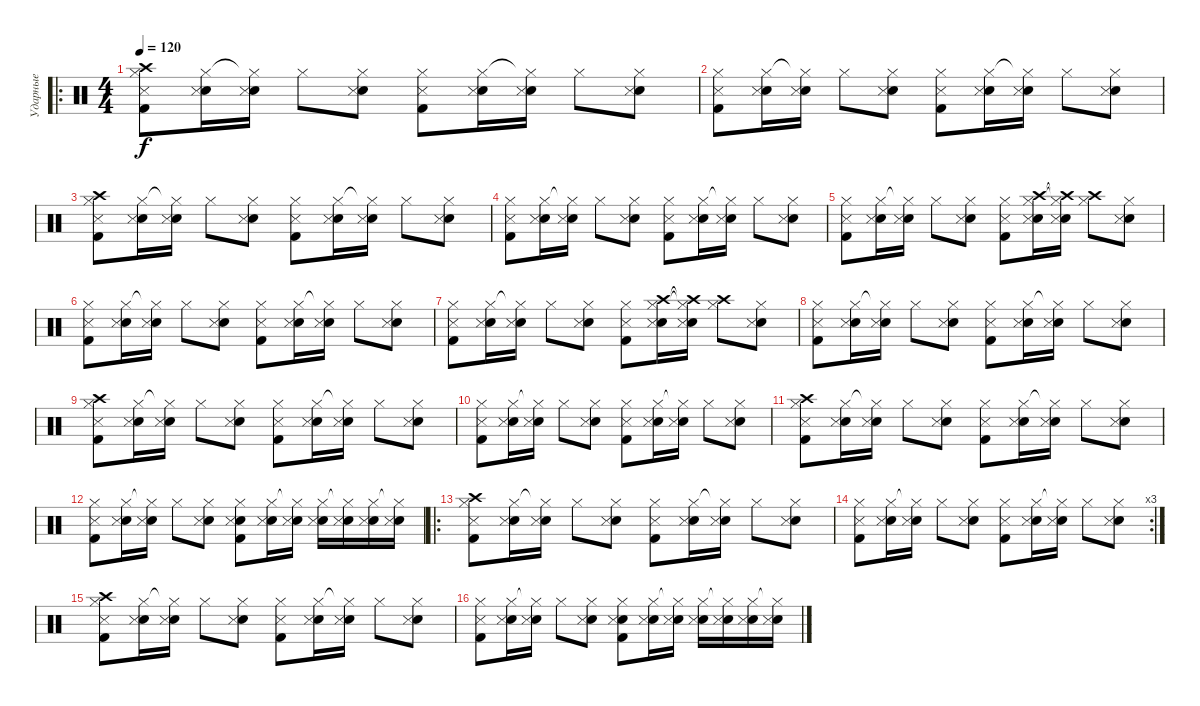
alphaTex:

\track ("Ударные" "Ударные") {instrument percussion}
\staff {score}
\articulation defaults
\ro
\ts (4 4)
\tempo 120
\clef neutral
\ks c
("Crash high (hit)" "Hi-Hat (closed)" "Kick (hit) 2" "Snare (side stick) 3").8{dy f} ("Hi-Hat (closed)" "Snare (hit) 2" "Snare (side stick) 3").16 ("Hi-Hat (closed)"{t} "Snare (hit) 2" "Snare (side stick) 3").16 "Hi-Hat (closed)".8 ("Hi-Hat (closed)" "Snare (hit) 2" "Snare (side stick) 3").8 ("Hi-Hat (closed)" "Kick (hit) 2" "Snare (side stick) 3").8 ("Hi-Hat (closed)" "Snare (hit) 2" "Snare (side stick) 3").16 ("Hi-Hat (closed)"{t} "Snare (hit) 2" "Snare (side stick) 3").16 "Hi-Hat (closed)".8 ("Hi-Hat (closed)" "Snare (hit) 2" "Snare (side stick) 3").8 |
("Hi-Hat (closed)" "Kick (hit) 2" "Snare (side stick) 3").8 ("Hi-Hat (closed)" "Snare (hit) 2" "Snare (side stick) 3").16 ("Hi-Hat (closed)"{t} "Snare (hit) 2" "Snare (side stick) 3").16 "Hi-Hat (closed)".8 ("Hi-Hat (closed)" "Snare (hit) 2" "Snare (side stick) 3").8 ("Hi-Hat (closed)" "Kick (hit) 2" "Snare (side stick) 3").8 ("Hi-Hat (closed)" "Snare (hit) 2" "Snare (side stick) 3").16 ("Hi-Hat (closed)"{t} "Snare (hit) 2" "Snare (side stick) 3").16 "Hi-Hat (closed)".8 ("Hi-Hat (closed)" "Snare (hit) 2" "Snare (side stick) 3").8 |
("Crash high (hit)" "Hi-Hat (closed)" "Kick (hit) 2" "Snare (side stick) 3").8 ("Hi-Hat (closed)" "Snare (hit) 2" "Snare (side stick) 3").16 ("Hi-Hat (closed)"{t} "Snare (hit) 2" "Snare (side stick) 3").16 "Hi-Hat (closed)".8 ("Hi-Hat (closed)" "Snare (hit) 2" "Snare (side stick) 3").8 ("Hi-Hat (closed)" "Kick (hit) 2" "Snare (side stick) 3").8 ("Hi-Hat (closed)" "Snare (hit) 2" "Snare (side stick) 3").16 ("Hi-Hat (closed)"{t} "Snare (hit) 2" "Snare (side stick) 3").16 "Hi-Hat (closed)".8 ("Hi-Hat (closed)" "Snare (hit) 2" "Snare (side stick) 3").8 |
("Hi-Hat (closed)" "Kick (hit) 2" "Snare (side stick) 3").8 ("Hi-Hat (closed)" "Snare (hit) 2" "Snare (side stick) 3").16 ("Hi-Hat (closed)"{t} "Snare (hit) 2" "Snare (side stick) 3").16 "Hi-Hat (closed)".8 ("Hi-Hat (closed)" "Snare (hit) 2" "Snare (side stick) 3").8 ("Hi-Hat (closed)" "Kick (hit) 2" "Snare (side stick) 3").8 ("Hi-Hat (closed)" "Snare (hit) 2" "Snare (side stick) 3").16 ("Hi-Hat (closed)"{t} "Snare (hit) 2" "Snare (side stick) 3").16 "Hi-Hat (closed)".8 ("Hi-Hat (closed)" "Snare (hit) 2" "Snare (side stick) 3").8 |
("Hi-Hat (closed)" "Kick (hit) 2" "Snare (side stick) 3").8 ("Hi-Hat (closed)" "Snare (hit) 2" "Snare (side stick) 3").16 ("Hi-Hat (closed)"{t} "Snare (hit) 2" "Snare (side stick) 3").16 "Hi-Hat (closed)".8 ("Hi-Hat (closed)" "Snare (hit) 2" "Snare (side stick) 3").8 ("Hi-Hat (closed)" "Kick (hit) 2" "Snare (side stick) 3").8 ("Crash high (hit)" "Hi-Hat (closed)" "Snare (hit) 2" "Snare (side stick) 3").16 ("Crash high (hit)"{t} "Hi-Hat (closed)"{t} "Snare (hit) 2" "Snare (side stick) 3").16 ("Crash high (hit)" "Hi-Hat (closed)").8 ("Hi-Hat (closed)" "Snare (hit) 2" "Snare (side stick) 3").8 |
("Hi-Hat (closed)" "Kick (hit) 2" "Snare (side stick) 3").8 ("Hi-Hat (closed)" "Snare (hit) 2" "Snare (side stick) 3").16 ("Hi-Hat (closed)"{t} "Snare (hit) 2" "Snare (side stick) 3").16 "Hi-Hat (closed)".8 ("Hi-Hat (closed)" "Snare (hit) 2" "Snare (side stick) 3").8 ("Hi-Hat (closed)" "Kick (hit) 2" "Snare (side stick) 3").8 ("Hi-Hat (closed)" "Snare (hit) 2" "Snare (side stick) 3").16 ("Hi-Hat (closed)"{t} "Snare (hit) 2" "Snare (side stick) 3").16 "Hi-Hat (closed)".8 ("Hi-Hat (closed)" "Snare (hit) 2" "Snare (side stick) 3").8 |
("Hi-Hat (closed)" "Kick (hit) 2" "Snare (side stick) 3").8 ("Hi-Hat (closed)" "Snare (hit) 2" "Snare (side stick) 3").16 ("Hi-Hat (closed)"{t} "Snare (hit) 2" "Snare (side stick) 3").16 "Hi-Hat (closed)".8 ("Hi-Hat (closed)" "Snare (hit) 2" "Snare (side stick) 3").8 ("Hi-Hat (closed)" "Kick (hit) 2" "Snare (side stick) 3").8 ("Crash high (hit)" "Hi-Hat (closed)" "Snare (hit) 2" "Snare (side stick) 3").16 ("Crash high (hit)"{t} "Hi-Hat (closed)"{t} "Snare (hit) 2" "Snare (side stick) 3").16 ("Crash high (hit)" "Hi-Hat (closed)").8 ("Hi-Hat (closed)" "Snare (hit) 2" "Snare (side stick) 3").8 |
("Hi-Hat (closed)" "Kick (hit) 2" "Snare (side stick) 3").8 ("Hi-Hat (closed)" "Snare (hit) 2" "Snare (side stick) 3").16 ("Hi-Hat (closed)"{t} "Snare (hit) 2" "Snare (side stick) 3").16 "Hi-Hat (closed)".8 ("Hi-Hat (closed)" "Snare (hit) 2" "Snare (side stick) 3").8 ("Hi-Hat (closed)" "Kick (hit) 2" "Snare (side stick) 3").8 ("Hi-Hat (closed)" "Snare (hit) 2" "Snare (side stick) 3").16 ("Hi-Hat (closed)"{t} "Snare (hit) 2" "Snare (side stick) 3").16 "Hi-Hat (closed)".8 ("Hi-Hat (closed)" "Snare (hit) 2" "Snare (side stick) 3").8 |
("Crash high (hit)" "Hi-Hat (closed)" "Kick (hit) 2" "Snare (side stick) 3").8 ("Hi-Hat (closed)" "Snare (hit) 2" "Snare (side stick) 3").16 ("Hi-Hat (closed)"{t} "Snare (hit) 2" "Snare (side stick) 3").16 "Hi-Hat (closed)".8 ("Hi-Hat (closed)" "Snare (hit) 2" "Snare (side stick) 3").8 ("Hi-Hat (closed)" "Kick (hit) 2" "Snare (side stick) 3").8 ("Hi-Hat (closed)" "Snare (hit) 2" "Snare (side stick) 3").16 ("Hi-Hat (closed)"{t} "Snare (hit) 2" "Snare (side stick) 3").16 "Hi-Hat (closed)".8 ("Hi-Hat (closed)" "Snare (hit) 2" "Snare (side stick) 3").8 |
("Hi-Hat (closed)" "Kick (hit) 2" "Snare (side stick) 3").8 ("Hi-Hat (closed)" "Snare (hit) 2" "Snare (side stick) 3").16 ("Hi-Hat (closed)"{t} "Snare (hit) 2" "Snare (side stick) 3").16 "Hi-Hat (closed)".8 ("Hi-Hat (closed)" "Snare (hit) 2" "Snare (side stick) 3").8 ("Hi-Hat (closed)" "Kick (hit) 2" "Snare (side stick) 3").8 ("Hi-Hat (closed)" "Snare (hit) 2" "Snare (side stick) 3").16 ("Hi-Hat (closed)"{t} "Snare (hit) 2" "Snare (side stick) 3").16 "Hi-Hat (closed)".8 ("Hi-Hat (closed)" "Snare (hit) 2" "Snare (side stick) 3").8 |
("Crash high (hit)" "Hi-Hat (closed)" "Kick (hit) 2" "Snare (side stick) 3").8 ("Hi-Hat (closed)" "Snare (hit) 2" "Snare (side stick) 3").16 ("Hi-Hat (closed)"{t} "Snare (hit) 2" "Snare (side stick) 3").16 "Hi-Hat (closed)".8 ("Hi-Hat (closed)" "Snare (hit) 2" "Snare (side stick) 3").8 ("Hi-Hat (closed)" "Kick (hit) 2" "Snare (side stick) 3").8 ("Hi-Hat (closed)" "Snare (hit) 2" "Snare (side stick) 3").16 ("Hi-Hat (closed)"{t} "Snare (hit) 2" "Snare (side stick) 3").16 "Hi-Hat (closed)".8 ("Hi-Hat (closed)" "Snare (hit) 2" "Snare (side stick) 3").8 |
("Hi-Hat (closed)" "Kick (hit) 2" "Snare (side stick) 3").8 ("Hi-Hat (closed)" "Snare (hit) 2" "Snare (side stick) 3").16 ("Hi-Hat (closed)"{t} "Snare (hit) 2" "Snare (side stick) 3").16 "Hi-Hat (closed)".8 ("Hi-Hat (closed)" "Snare (hit) 2" "Snare (side stick) 3").8 ("Hi-Hat (closed)" "Kick (hit) 2" "Snare (hit) 2" "Snare (side stick) 3").8 ("Hi-Hat (closed)" "Snare (hit) 2" "Snare (side stick) 3").16 ("Hi-Hat (closed)"{t} "Snare (hit) 2" "Snare (side stick) 3").16 ("Hi-Hat (closed)" "Snare (hit) 2" "Snare (side stick) 3").16 ("Hi-Hat (closed)"{t} "Snare (hit) 2" "Snare (side stick) 3").16 ("Hi-Hat (closed)" "Snare (hit) 2" "Snare (side stick) 3").16 ("Hi-Hat (closed)"{t} "Snare (hit) 2" "Snare (side stick) 3").16 |
\ro
("Crash high (hit)" "Hi-Hat (closed)" "Kick (hit) 2" "Snare (side stick) 3").8 ("Hi-Hat (closed)" "Snare (hit) 2" "Snare (side stick) 3").16 ("Hi-Hat (closed)"{t} "Snare (hit) 2" "Snare (side stick) 3").16 "Hi-Hat (closed)".8 ("Hi-Hat (closed)" "Snare (hit) 2" "Snare (side stick) 3").8 ("Hi-Hat (closed)" "Kick (hit) 2" "Snare (side stick) 3").8 ("Hi-Hat (closed)" "Snare (hit) 2" "Snare (side stick) 3").16 ("Hi-Hat (closed)"{t} "Snare (hit) 2" "Snare (side stick) 3").16 "Hi-Hat (closed)".8 ("Hi-Hat (closed)" "Snare (hit) 2" "Snare (side stick) 3").8 |
\rc 3
("Hi-Hat (closed)" "Kick (hit) 2" "Snare (side stick) 3").8 ("Hi-Hat (closed)" "Snare (hit) 2" "Snare (side stick) 3").16 ("Hi-Hat (closed)"{t} "Snare (hit) 2" "Snare (side stick) 3").16 "Hi-Hat (closed)".8 ("Hi-Hat (closed)" "Snare (hit) 2" "Snare (side stick) 3").8 ("Hi-Hat (closed)" "Kick (hit) 2" "Snare (side stick) 3").8 ("Hi-Hat (closed)" "Snare (hit) 2" "Snare (side stick) 3").16 ("Hi-Hat (closed)"{t} "Snare (hit) 2" "Snare (side stick) 3").16 "Hi-Hat (closed)".8 ("Hi-Hat (closed)" "Snare (hit) 2" "Snare (side stick) 3").8 |
("Crash high (hit)" "Hi-Hat (closed)" "Kick (hit) 2" "Snare (side stick) 3").8 ("Hi-Hat (closed)" "Snare (hit) 2" "Snare (side stick) 3").16 ("Hi-Hat (closed)"{t} "Snare (hit) 2" "Snare (side stick) 3").16 "Hi-Hat (closed)".8 ("Hi-Hat (closed)" "Snare (hit) 2" "Snare (side stick) 3").8 ("Hi-Hat (closed)" "Kick (hit) 2" "Snare (side stick) 3").8 ("Hi-Hat (closed)" "Snare (hit) 2" "Snare (side stick) 3").16 ("Hi-Hat (closed)"{t} "Snare (hit) 2" "Snare (side stick) 3").16 "Hi-Hat (closed)".8 ("Hi-Hat (closed)" "Snare (hit) 2" "Snare (side stick) 3").8 |
("Hi-Hat (closed)" "Kick (hit) 2" "Snare (side stick) 3").8 ("Hi-Hat (closed)" "Snare (hit) 2" "Snare (side stick) 3").16 ("Hi-Hat (closed)"{t} "Snare (hit) 2" "Snare (side stick) 3").16 "Hi-Hat (closed)".8 ("Hi-Hat (closed)" "Snare (hit) 2" "Snare (side stick) 3").8 ("Hi-Hat (closed)" "Kick (hit) 2" "Snare (hit) 2" "Snare (side stick) 3").8 ("Hi-Hat (closed)" "Snare (hit) 2" "Snare (side stick) 3").16 ("Hi-Hat (closed)"{t} "Snare (hit) 2" "Snare (side stick) 3").16 ("Hi-Hat (closed)" "Snare (hit) 2" "Snare (side stick) 3").16 ("Hi-Hat (closed)"{t} "Snare (hit) 2" "Snare (side stick) 3").16 ("Hi-Hat (closed)" "Snare (hit) 2" "Snare (side stick) 3").16 ("Hi-Hat (closed)"{t} "Snare (hit) 2" "Snare (side stick) 3").16
